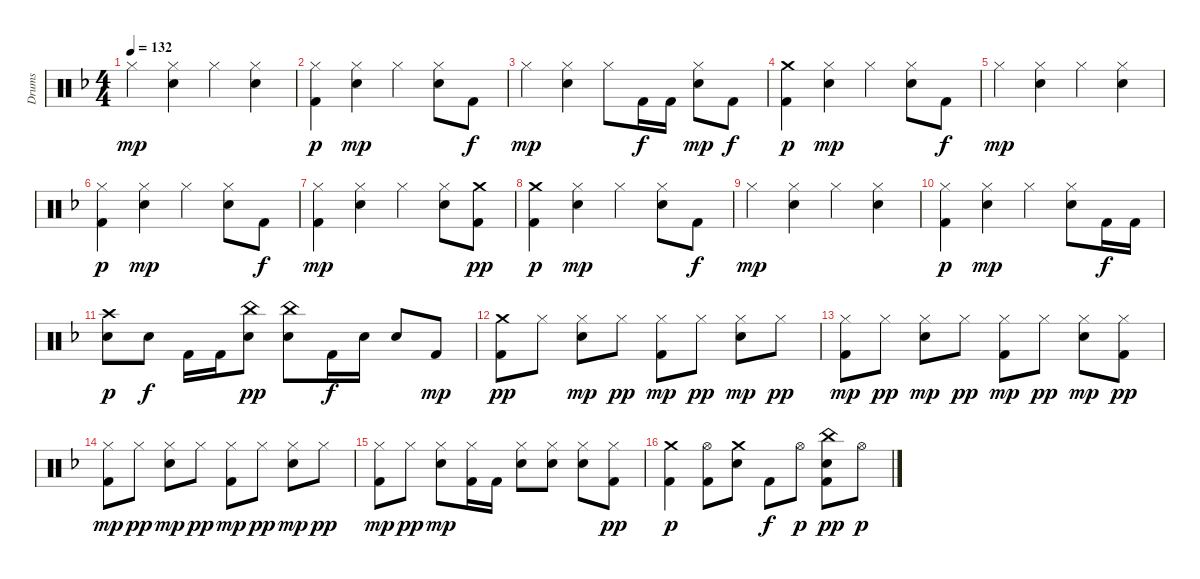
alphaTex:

\track ("Drums" "Drums") {instrument percussion}
\staff {score}
\articulation defaults
\ts (4 4)
\tempo 132
\clef neutral
\ks f "Hi-Hat (closed)".4{dy mp}
("Hi-Hat (closed)" "Electric Snare (hit)").4 "Hi-Hat (closed)".4 ("Hi-Hat (closed)" "Electric Snare (hit)").4 |
("Hi-Hat (closed)" "Kick (hit) 2").4{dy p} ("Hi-Hat (closed)" "Electric Snare (hit)").4{dy mp} "Hi-Hat (closed)".4 ("Hi-Hat (closed)" "Electric Snare (hit)").8 "Kick (hit) 2".8{dy f} |
"Hi-Hat (closed)".4{dy mp} ("Hi-Hat (closed)" "Electric Snare (hit)").4 "Hi-Hat (closed)".8 "Kick (hit) 2".16{dy f} "Kick (hit) 2".16 ("Hi-Hat (closed)" "Electric Snare (hit)").8{dy mp} "Kick (hit) 2".8{dy f} |
("Crash medium (hit)" "Kick (hit) 2").4{dy p} ("Hi-Hat (closed)" "Electric Snare (hit)").4{dy mp} "Hi-Hat (closed)".4 ("Hi-Hat (closed)" "Electric Snare (hit)").8 "Kick (hit) 2".8{dy f} |
"Hi-Hat (closed)".4{dy mp} ("Hi-Hat (closed)" "Electric Snare (hit)").4 "Hi-Hat (closed)".4 ("Hi-Hat (closed)" "Electric Snare (hit)").4 |
("Hi-Hat (closed)" "Kick (hit) 2").4{dy p} ("Hi-Hat (closed)" "Electric Snare (hit)").4{dy mp} "Hi-Hat (closed)".4 ("Hi-Hat (closed)" "Electric Snare (hit)").8 "Kick (hit) 2".8{dy f} |
("Hi-Hat (closed)" "Kick (hit) 2").4{dy mp} ("Hi-Hat (closed)" "Electric Snare (hit)").4 "Hi-Hat (closed)".4 ("Hi-Hat (closed)" "Electric Snare (hit)").8 ("Kick (hit) 2" "Crash medium (hit)").8{dy pp} |
("Crash medium (hit)" "Kick (hit) 2").4{dy p} ("Hi-Hat (closed)" "Electric Snare (hit)").4{dy mp} "Hi-Hat (closed)".4 ("Hi-Hat (closed)" "Electric Snare (hit)").8 "Kick (hit) 2".8{dy f} |
"Hi-Hat (closed)".4{dy mp} ("Hi-Hat (closed)" "Electric Snare (hit)").4 "Hi-Hat (closed)".4 ("Hi-Hat (closed)" "Electric Snare (hit)").4 |
("Hi-Hat (closed)" "Kick (hit) 2").4{dy p} ("Hi-Hat (closed)" "Electric Snare (hit)").4{dy mp} "Hi-Hat (closed)".4 ("Hi-Hat (closed)" "Electric Snare (hit)").8 "Kick (hit) 2".16{dy f} "Kick (hit) 2".16 |
("Electric Snare (hit)" "Crash high (hit)").8{dy p} "Electric Snare (hit)".8{dy f} "Kick (hit) 2".16 "Kick (hit) 2".16 ("Electric Snare (hit)" "China (hit)").8{dy pp} ("Electric Snare (hit)" "China (hit)").8 "Kick (hit) 2".16{dy f} "Electric Snare (hit)".16 "Electric Snare (hit)".8 "Kick (hit) 2".8{dy mp} |
("Crash medium (hit)" "Kick (hit) 2").8{dy pp} "Hi-Hat (closed)".8 ("Hi-Hat (closed)" "Electric Snare (hit)").8{dy mp} "Hi-Hat (closed)".8{dy pp} ("Hi-Hat (closed)" "Kick (hit) 2").8{dy mp} "Hi-Hat (closed)".8{dy pp} ("Hi-Hat (closed)" "Electric Snare (hit)").8{dy mp} "Hi-Hat (closed)".8{dy pp} |
("Hi-Hat (closed)" "Kick (hit) 2").8{dy mp} "Hi-Hat (closed)".8{dy pp} ("Hi-Hat (closed)" "Electric Snare (hit)").8{dy mp} "Hi-Hat (closed)".8{dy pp} ("Hi-Hat (closed)" "Kick (hit) 2").8{dy mp} "Hi-Hat (closed)".8{dy pp} ("Hi-Hat (closed)" "Electric Snare (hit)").8{dy mp} ("Hi-Hat (closed)" "Kick (hit) 2").8{dy pp} |
("Hi-Hat (closed)" "Kick (hit) 2").8{dy mp} "Hi-Hat (closed)".8{dy pp} ("Hi-Hat (closed)" "Electric Snare (hit)").8{dy mp} "Hi-Hat (closed)".8{dy pp} ("Hi-Hat (closed)" "Kick (hit) 2").8{dy mp} "Hi-Hat (closed)".8{dy pp} ("Hi-Hat (closed)" "Electric Snare (hit)").8{dy mp} "Hi-Hat (closed)".8{dy pp} |
("Hi-Hat (closed)" "Kick (hit) 2").8{dy mp} "Hi-Hat (closed)".8{dy pp} ("Hi-Hat (closed)" "Electric Snare (hit)").8{dy mp} ("Hi-Hat (closed)" "Kick (hit) 2").16 "Kick (hit) 2".16 ("Hi-Hat (closed)" "Electric Snare (hit)").8 ("Hi-Hat (closed)" "Electric Snare (hit)").8 ("Hi-Hat (closed)" "Electric Snare (hit)").8 ("Hi-Hat (closed)" "Kick (hit) 2").8{dy pp} |
("Kick (hit) 2" "Crash medium (hit)").4{dy p} ("Kick (hit) 2" "Hi-Hat (open)").8 ("Electric Snare (hit)" "Crash medium (hit)").8 "Kick (hit) 2".8{dy f} "Hi-Hat (open)".8{dy p} ("Kick (hit) 2" "Electric Snare (hit)" "China (hit)").8{dy pp} "Hi-Hat (open)".8{dy p}
